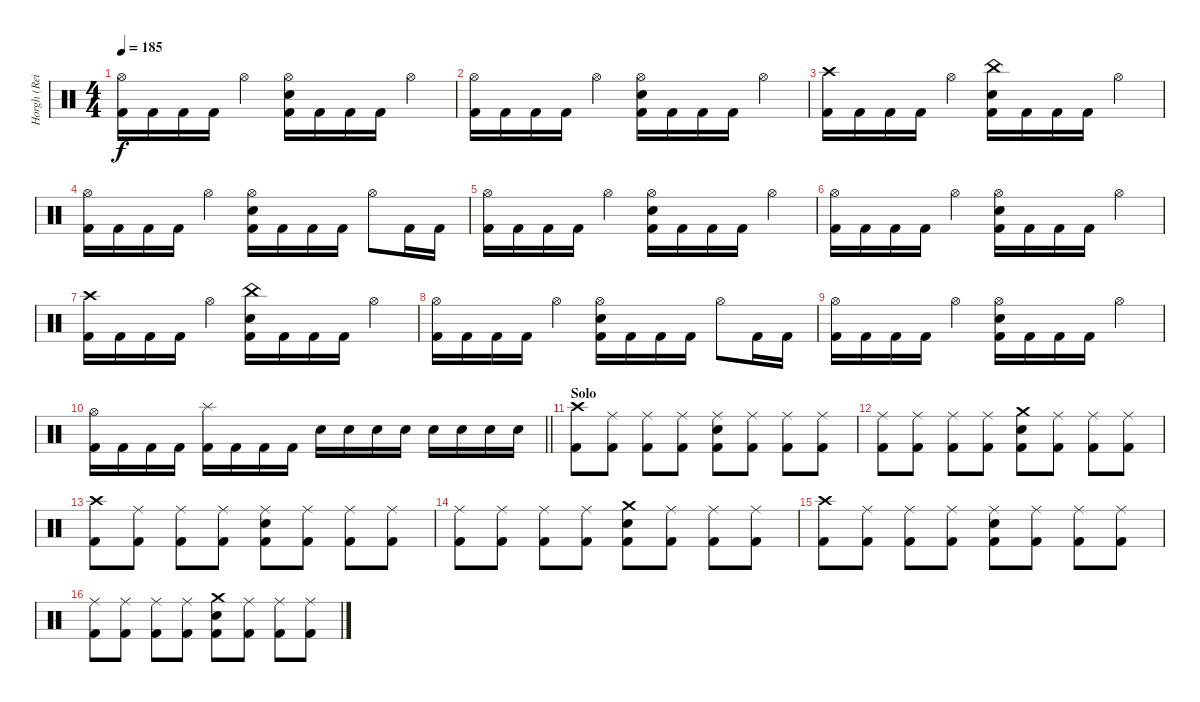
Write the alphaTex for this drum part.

\track ("Horgh (Reidar Horghagen)" "Horgh (Rei") {instrument percussion}
\staff {score}
\articulation defaults
\ts (4 4)
\tempo 185
\clef neutral
\ks c
("Hi-Hat (open)" "Kick (hit) 2").16{dy f} "Kick (hit) 2".16 "Kick (hit) 2".16 "Kick (hit) 2".16 "Hi-Hat (open)".4 ("Hi-Hat (open)" "Snare (hit) 2" "Kick (hit) 2").16 "Kick (hit) 2".16 "Kick (hit) 2".16 "Kick (hit) 2".16 "Hi-Hat (open)".4 |
("Hi-Hat (open)" "Kick (hit) 2").16 "Kick (hit) 2".16 "Kick (hit) 2".16 "Kick (hit) 2".16 "Hi-Hat (open)".4 ("Hi-Hat (open)" "Snare (hit) 2" "Kick (hit) 2").16 "Kick (hit) 2".16 "Kick (hit) 2".16 "Kick (hit) 2".16 "Hi-Hat (open)".4 |
("Crash high (hit)" "Kick (hit) 2").16 "Kick (hit) 2".16 "Kick (hit) 2".16 "Kick (hit) 2".16 "Hi-Hat (open)".4 ("China (hit)" "Snare (hit) 2" "Kick (hit) 2").16 "Kick (hit) 2".16 "Kick (hit) 2".16 "Kick (hit) 2".16 "Hi-Hat (open)".4 |
("Hi-Hat (open)" "Kick (hit) 2").16 "Kick (hit) 2".16 "Kick (hit) 2".16 "Kick (hit) 2".16 "Hi-Hat (open)".4 ("Hi-Hat (open)" "Snare (hit) 2" "Kick (hit) 2").16 "Kick (hit) 2".16 "Kick (hit) 2".16 "Kick (hit) 2".16 "Hi-Hat (open)".8 "Kick (hit) 2".16 "Kick (hit) 2".16 |
("Hi-Hat (open)" "Kick (hit) 2").16 "Kick (hit) 2".16 "Kick (hit) 2".16 "Kick (hit) 2".16 "Hi-Hat (open)".4 ("Hi-Hat (open)" "Snare (hit) 2" "Kick (hit) 2").16 "Kick (hit) 2".16 "Kick (hit) 2".16 "Kick (hit) 2".16 "Hi-Hat (open)".4 |
("Hi-Hat (open)" "Kick (hit) 2").16 "Kick (hit) 2".16 "Kick (hit) 2".16 "Kick (hit) 2".16 "Hi-Hat (open)".4 ("Hi-Hat (open)" "Snare (hit) 2" "Kick (hit) 2").16 "Kick (hit) 2".16 "Kick (hit) 2".16 "Kick (hit) 2".16 "Hi-Hat (open)".4 |
("Crash high (hit)" "Kick (hit) 2").16 "Kick (hit) 2".16 "Kick (hit) 2".16 "Kick (hit) 2".16 "Hi-Hat (open)".4 ("China (hit)" "Snare (hit) 2" "Kick (hit) 2").16 "Kick (hit) 2".16 "Kick (hit) 2".16 "Kick (hit) 2".16 "Hi-Hat (open)".4 |
("Hi-Hat (open)" "Kick (hit) 2").16 "Kick (hit) 2".16 "Kick (hit) 2".16 "Kick (hit) 2".16 "Hi-Hat (open)".4 ("Hi-Hat (open)" "Snare (hit) 2" "Kick (hit) 2").16 "Kick (hit) 2".16 "Kick (hit) 2".16 "Kick (hit) 2".16 "Hi-Hat (open)".8 "Kick (hit) 2".16 "Kick (hit) 2".16 |
("Hi-Hat (open)" "Kick (hit) 2").16 "Kick (hit) 2".16 "Kick (hit) 2".16 "Kick (hit) 2".16 "Hi-Hat (open)".4 ("Hi-Hat (open)" "Snare (hit) 2" "Kick (hit) 2").16 "Kick (hit) 2".16 "Kick (hit) 2".16 "Kick (hit) 2".16 "Hi-Hat (open)".4 |
\barLineRight lightlight
("Hi-Hat (open)" "Kick (hit) 2").16 "Kick (hit) 2".16 "Kick (hit) 2".16 "Kick (hit) 2".16 ("Splash (hit)" "Kick (hit) 2").16 "Kick (hit) 2".16 "Kick (hit) 2".16 "Kick (hit) 2".16 "Snare (hit) 2".16 "Snare (hit) 2".16 "Snare (hit) 2".16 "Snare (hit) 2".16 "Snare (hit) 2".16 "Snare (hit) 2".16 "Snare (hit) 2".16 "Snare (hit) 2".16 |
\section ("" "Solo")
("Crash high (hit)" "Kick (hit) 2").8 ("Ride (middle)" "Kick (hit) 2").8 ("Ride (middle)" "Kick (hit) 2").8 ("Ride (middle)" "Kick (hit) 2").8 ("Ride (middle)" "Snare (hit) 2" "Kick (hit) 2").8 ("Ride (middle)" "Kick (hit) 2").8 ("Ride (middle)" "Kick (hit) 2").8 ("Ride (middle)" "Kick (hit) 2").8 |
("Ride (middle)" "Kick (hit) 2").8 ("Ride (middle)" "Kick (hit) 2").8 ("Ride (middle)" "Kick (hit) 2").8 ("Ride (middle)" "Kick (hit) 2").8 ("Crash medium (hit)" "Snare (hit) 2" "Kick (hit) 2").8 ("Ride (middle)" "Kick (hit) 2").8 ("Ride (middle)" "Kick (hit) 2").8 ("Ride (middle)" "Kick (hit) 2").8 |
("Crash high (hit)" "Kick (hit) 2").8 ("Ride (middle)" "Kick (hit) 2").8 ("Ride (middle)" "Kick (hit) 2").8 ("Ride (middle)" "Kick (hit) 2").8 ("Ride (middle)" "Snare (hit) 2" "Kick (hit) 2").8 ("Ride (middle)" "Kick (hit) 2").8 ("Ride (middle)" "Kick (hit) 2").8 ("Ride (middle)" "Kick (hit) 2").8 |
("Ride (middle)" "Kick (hit) 2").8 ("Ride (middle)" "Kick (hit) 2").8 ("Ride (middle)" "Kick (hit) 2").8 ("Ride (middle)" "Kick (hit) 2").8 ("Crash medium (hit)" "Snare (hit) 2" "Kick (hit) 2").8 ("Ride (middle)" "Kick (hit) 2").8 ("Ride (middle)" "Kick (hit) 2").8 ("Ride (middle)" "Kick (hit) 2").8 |
("Crash high (hit)" "Kick (hit) 2").8 ("Ride (middle)" "Kick (hit) 2").8 ("Ride (middle)" "Kick (hit) 2").8 ("Ride (middle)" "Kick (hit) 2").8 ("Ride (middle)" "Snare (hit) 2" "Kick (hit) 2").8 ("Ride (middle)" "Kick (hit) 2").8 ("Ride (middle)" "Kick (hit) 2").8 ("Ride (middle)" "Kick (hit) 2").8 |
("Ride (middle)" "Kick (hit) 2").8 ("Ride (middle)" "Kick (hit) 2").8 ("Ride (middle)" "Kick (hit) 2").8 ("Ride (middle)" "Kick (hit) 2").8 ("Crash medium (hit)" "Snare (hit) 2" "Kick (hit) 2").8 ("Ride (middle)" "Kick (hit) 2").8 ("Ride (middle)" "Kick (hit) 2").8 ("Ride (middle)" "Kick (hit) 2").8
